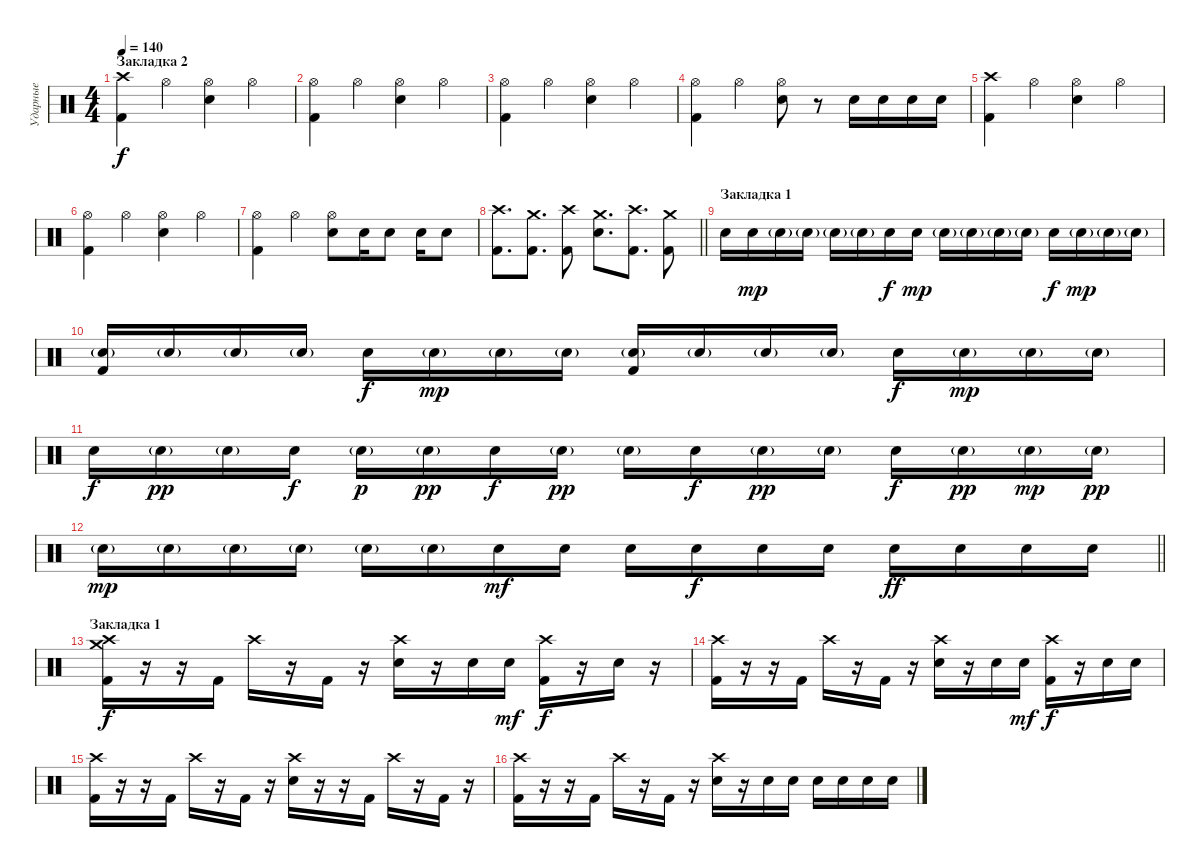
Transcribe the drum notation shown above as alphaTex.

\track ("Ударные" "Ударные") {instrument percussion}
\staff {score}
\articulation defaults
\ts (4 4)
\section ("" "Закладка 2")
\tempo 140
\clef neutral
\ks c
("Crash high (hit)" "Kick (hit) 2").4{dy f} "Hi-Hat (open)".4 ("Hi-Hat (open)" "Electric Snare (hit)").4 "Hi-Hat (open)".4 |
("Hi-Hat (open)" "Kick (hit) 2").4 "Hi-Hat (open)".4 ("Hi-Hat (open)" "Electric Snare (hit)").4 "Hi-Hat (open)".4 |
("Hi-Hat (open)" "Kick (hit) 2").4 "Hi-Hat (open)".4 ("Hi-Hat (open)" "Electric Snare (hit)").4 "Hi-Hat (open)".4 |
("Hi-Hat (open)" "Kick (hit) 2").4 "Hi-Hat (open)".4 ("Hi-Hat (open)" "Electric Snare (hit)").8 r.8 "Electric Snare (hit)".16 "Electric Snare (hit)".16 "Electric Snare (hit)".16 "Electric Snare (hit)".16 |
("Crash high (hit)" "Kick (hit) 2").4 "Hi-Hat (open)".4 ("Hi-Hat (open)" "Electric Snare (hit)").4 "Hi-Hat (open)".4 |
("Hi-Hat (open)" "Kick (hit) 2").4 "Hi-Hat (open)".4 ("Hi-Hat (open)" "Electric Snare (hit)").4 "Hi-Hat (open)".4 |
("Hi-Hat (open)" "Kick (hit) 2").4 "Hi-Hat (open)".4 ("Hi-Hat (open)" "Electric Snare (hit)").8 "Electric Snare (hit)".16 "Electric Snare (hit)".8 "Electric Snare (hit)".16 "Electric Snare (hit)".8 |
\barLineRight lightlight
("Crash high (hit)" "Kick (hit) 2").8{d} ("Crash medium (hit)" "Kick (hit) 2").8{d} ("Crash high (hit)" "Kick (hit) 2").8 ("Crash medium (hit)" "Electric Snare (hit)").8{d} ("Crash high (hit)" "Kick (hit) 2").8{d} ("Crash medium (hit)" "Kick (hit) 2").8 |
\section ("" "Закладка 1")
"Electric Snare (hit)".16 "Electric Snare (hit)".16{dy mp} "Electric Snare (hit)"{g}.16 "Electric Snare (hit)"{g}.16 "Electric Snare (hit)"{g}.16 "Electric Snare (hit)"{g}.16 "Electric Snare (hit)".16{dy f} "Electric Snare (hit)".16{dy mp} "Electric Snare (hit)"{g}.16 "Electric Snare (hit)"{g}.16 "Electric Snare (hit)"{g}.16 "Electric Snare (hit)"{g}.16 "Electric Snare (hit)".16{dy f} "Electric Snare (hit)"{g}.16{dy mp} "Electric Snare (hit)"{g}.16 "Electric Snare (hit)"{g}.16 |
("Electric Snare (hit)"{g} "Kick (hit) 2").16 "Electric Snare (hit)"{g}.16 "Electric Snare (hit)"{g}.16 "Electric Snare (hit)"{g}.16 "Electric Snare (hit)".16{dy f} "Electric Snare (hit)"{g}.16{dy mp} "Electric Snare (hit)"{g}.16 "Electric Snare (hit)"{g}.16 ("Electric Snare (hit)"{g} "Kick (hit) 2").16 "Electric Snare (hit)"{g}.16 "Electric Snare (hit)"{g}.16 "Electric Snare (hit)"{g}.16 "Electric Snare (hit)".16{dy f} "Electric Snare (hit)"{g}.16{dy mp} "Electric Snare (hit)"{g}.16 "Electric Snare (hit)"{g}.16 |
"Electric Snare (hit)".16{dy f} "Electric Snare (hit)"{g}.16{dy pp} "Electric Snare (hit)"{g}.16 "Electric Snare (hit)".16{dy f} "Electric Snare (hit)"{g}.16{dy p} "Electric Snare (hit)"{g}.16{dy pp} "Electric Snare (hit)".16{dy f} "Electric Snare (hit)"{g}.16{dy pp} "Electric Snare (hit)"{g}.16 "Electric Snare (hit)".16{dy f} "Electric Snare (hit)"{g}.16{dy pp} "Electric Snare (hit)"{g}.16 "Electric Snare (hit)".16{dy f} "Electric Snare (hit)"{g}.16{dy pp} "Electric Snare (hit)"{g}.16{dy mp} "Electric Snare (hit)"{g}.16{dy pp} |
\barLineRight lightlight "Electric Snare (hit)"{g}.16{dy mp} "Electric Snare (hit)"{g}.16 "Electric Snare (hit)"{g}.16 "Electric Snare (hit)"{g}.16 "Electric Snare (hit)"{g}.16 "Electric Snare (hit)"{g}.16 "Electric Snare (hit)".16{dy mf} "Electric Snare (hit)".16 "Electric Snare (hit)".16 "Electric Snare (hit)".16{dy f} "Electric Snare (hit)".16 "Electric Snare (hit)".16 "Electric Snare (hit)".16{dy ff} "Electric Snare (hit)".16 "Electric Snare (hit)".16 "Electric Snare (hit)".16
|
\section ("" "Закладка 1")
("Crash high (hit)" "Crash medium (hit)" "Kick (hit) 2").16{dy f} r.16 r.16 "Kick (hit) 2".16 "Crash high (hit)".16 r.16 "Kick (hit) 2".16 r.16 ("Crash high (hit)" "Electric Snare (hit)").16 r.16 "Electric Snare (hit)".16 "Electric Snare (hit)".16{dy mf} ("Crash high (hit)" "Kick (hit) 2").16{dy f} r.16 "Electric Snare (hit)".16 r.16 |
("Crash high (hit)" "Kick (hit) 2").16 r.16 r.16 "Kick (hit) 2".16 "Crash high (hit)".16 r.16 "Kick (hit) 2".16 r.16 ("Crash high (hit)" "Electric Snare (hit)").16 r.16 "Electric Snare (hit)".16 "Electric Snare (hit)".16{dy mf} ("Crash high (hit)" "Kick (hit) 2").16{dy f} r.16 "Electric Snare (hit)".16 "Electric Snare (hit)".16 |
("Crash high (hit)" "Kick (hit) 2").16 r.16 r.16 "Kick (hit) 2".16 "Crash high (hit)".16 r.16 "Kick (hit) 2".16 r.16 ("Crash high (hit)" "Electric Snare (hit)").16 r.16 r.16 "Kick (hit) 2".16 "Crash high (hit)".16 r.16 "Kick (hit) 2".16 r.16 |
("Crash high (hit)" "Kick (hit) 2").16 r.16 r.16 "Kick (hit) 2".16 "Crash high (hit)".16 r.16 "Kick (hit) 2".16 r.16 ("Crash high (hit)" "Electric Snare (hit)").16 r.16 "Electric Snare (hit)".16 "Electric Snare (hit)".16 "Electric Snare (hit)".16 "Electric Snare (hit)".16 "Electric Snare (hit)".16 "Electric Snare (hit)".16
